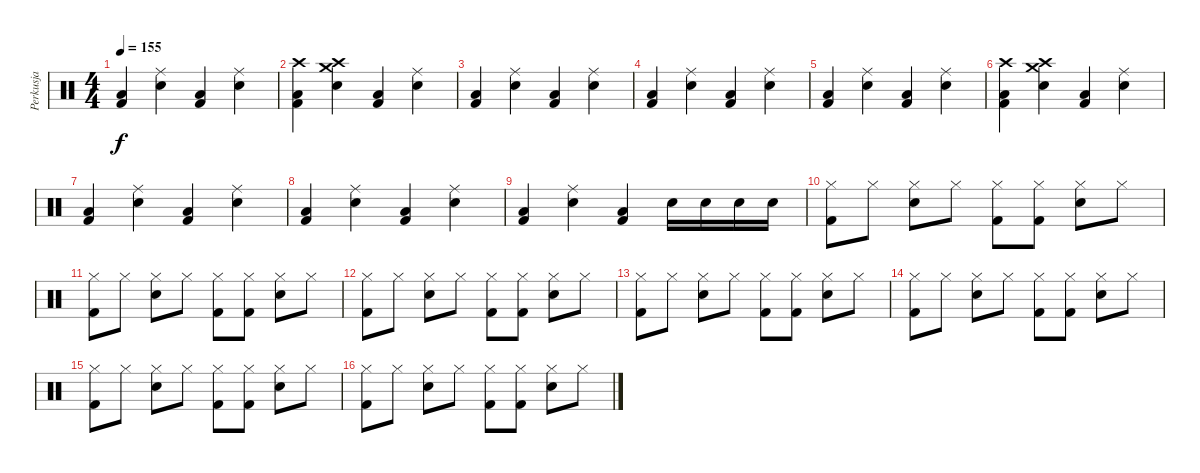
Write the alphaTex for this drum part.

\track ("Perkusja" "Perkusja") {instrument percussion}
\staff {score}
\articulation defaults
\ts (4 4)
\tempo 155
\clef neutral
\ks c
("Low Floor Tom (hit)" "Kick (hit) 2").4{dy f} ("Ride (middle)" "Electric Snare (hit)").4 ("Low Floor Tom (hit)" "Kick (hit) 2").4 ("Ride (middle)" "Electric Snare (hit)").4 |
("Crash high (hit)" "Low Floor Tom (hit)" "Kick (hit) 2").4 ("Crash high (hit)" "Crash medium (hit)" "Electric Snare (hit)").4 ("Low Floor Tom (hit)" "Kick (hit) 2").4 ("Ride (middle)" "Electric Snare (hit)").4 |
("Low Floor Tom (hit)" "Kick (hit) 2").4 ("Ride (middle)" "Electric Snare (hit)").4 ("Low Floor Tom (hit)" "Kick (hit) 2").4 ("Ride (middle)" "Electric Snare (hit)").4 |
("Low Floor Tom (hit)" "Kick (hit) 2").4 ("Ride (middle)" "Electric Snare (hit)").4 ("Low Floor Tom (hit)" "Kick (hit) 2").4 ("Ride (middle)" "Electric Snare (hit)").4 |
("Low Floor Tom (hit)" "Kick (hit) 2").4 ("Ride (middle)" "Electric Snare (hit)").4 ("Low Floor Tom (hit)" "Kick (hit) 2").4 ("Ride (middle)" "Electric Snare (hit)").4 |
("Crash high (hit)" "Low Floor Tom (hit)" "Kick (hit) 2").4 ("Crash high (hit)" "Crash medium (hit)" "Electric Snare (hit)").4 ("Low Floor Tom (hit)" "Kick (hit) 2").4 ("Ride (middle)" "Electric Snare (hit)").4 |
("Low Floor Tom (hit)" "Kick (hit) 2").4 ("Ride (middle)" "Electric Snare (hit)").4 ("Low Floor Tom (hit)" "Kick (hit) 2").4 ("Ride (middle)" "Electric Snare (hit)").4 |
("Low Floor Tom (hit)" "Kick (hit) 2").4 ("Ride (middle)" "Electric Snare (hit)").4 ("Low Floor Tom (hit)" "Kick (hit) 2").4 ("Ride (middle)" "Electric Snare (hit)").4 |
("Low Floor Tom (hit)" "Kick (hit) 2").4 ("Ride (middle)" "Electric Snare (hit)").4 ("Low Floor Tom (hit)" "Kick (hit) 2").4 "Electric Snare (hit)".16 "Electric Snare (hit)".16 "Electric Snare (hit)".16 "Electric Snare (hit)".16 |
("Hi-Hat (closed)" "Kick (hit) 2").8 "Hi-Hat (closed)".8 ("Hi-Hat (closed)" "Electric Snare (hit)").8 "Hi-Hat (closed)".8 ("Hi-Hat (closed)" "Kick (hit) 2").8 ("Hi-Hat (closed)" "Kick (hit) 2").8 ("Hi-Hat (closed)" "Electric Snare (hit)").8 "Hi-Hat (closed)".8 |
("Hi-Hat (closed)" "Kick (hit) 2").8 "Hi-Hat (closed)".8 ("Hi-Hat (closed)" "Electric Snare (hit)").8 "Hi-Hat (closed)".8 ("Hi-Hat (closed)" "Kick (hit) 2").8 ("Hi-Hat (closed)" "Kick (hit) 2").8 ("Hi-Hat (closed)" "Electric Snare (hit)").8 "Hi-Hat (closed)".8 |
("Hi-Hat (closed)" "Kick (hit) 2").8 "Hi-Hat (closed)".8 ("Hi-Hat (closed)" "Electric Snare (hit)").8 "Hi-Hat (closed)".8 ("Hi-Hat (closed)" "Kick (hit) 2").8 ("Hi-Hat (closed)" "Kick (hit) 2").8 ("Hi-Hat (closed)" "Electric Snare (hit)").8 "Hi-Hat (closed)".8 |
("Hi-Hat (closed)" "Kick (hit) 2").8 "Hi-Hat (closed)".8 ("Hi-Hat (closed)" "Electric Snare (hit)").8 "Hi-Hat (closed)".8 ("Hi-Hat (closed)" "Kick (hit) 2").8 ("Hi-Hat (closed)" "Kick (hit) 2").8 ("Hi-Hat (closed)" "Electric Snare (hit)").8 "Hi-Hat (closed)".8 |
("Hi-Hat (closed)" "Kick (hit) 2").8 "Hi-Hat (closed)".8 ("Hi-Hat (closed)" "Electric Snare (hit)").8 "Hi-Hat (closed)".8 ("Hi-Hat (closed)" "Kick (hit) 2").8 ("Hi-Hat (closed)" "Kick (hit) 2").8 ("Hi-Hat (closed)" "Electric Snare (hit)").8 "Hi-Hat (closed)".8 |
("Hi-Hat (closed)" "Kick (hit) 2").8 "Hi-Hat (closed)".8 ("Hi-Hat (closed)" "Electric Snare (hit)").8 "Hi-Hat (closed)".8 ("Hi-Hat (closed)" "Kick (hit) 2").8 ("Hi-Hat (closed)" "Kick (hit) 2").8 ("Hi-Hat (closed)" "Electric Snare (hit)").8 "Hi-Hat (closed)".8 |
("Hi-Hat (closed)" "Kick (hit) 2").8 "Hi-Hat (closed)".8 ("Hi-Hat (closed)" "Electric Snare (hit)").8 "Hi-Hat (closed)".8 ("Hi-Hat (closed)" "Kick (hit) 2").8 ("Hi-Hat (closed)" "Kick (hit) 2").8 ("Hi-Hat (closed)" "Electric Snare (hit)").8 "Hi-Hat (closed)".8
